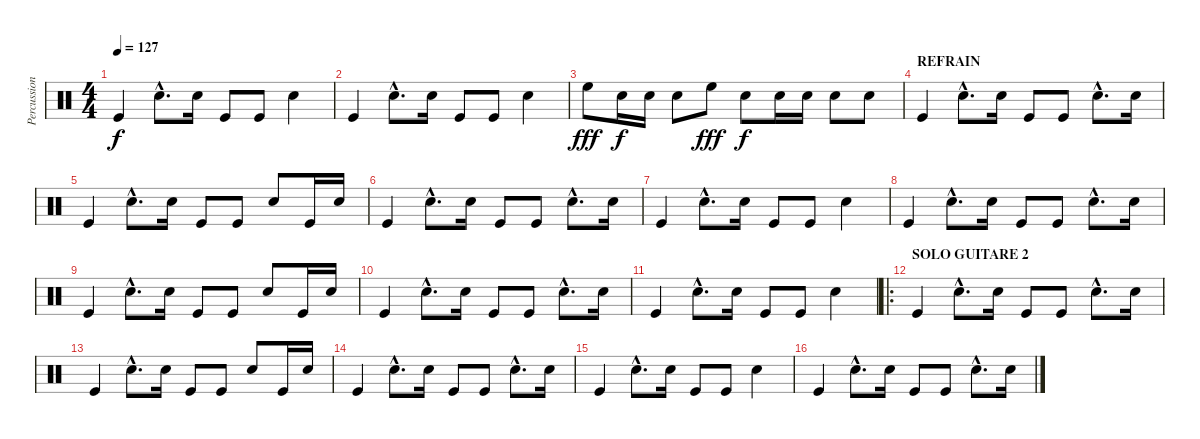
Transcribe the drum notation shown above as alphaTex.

\track ("Percussions" "Percussion") {instrument percussion}
\staff {score}
\articulation defaults
\ts (4 4)
\tempo 127
\clef neutral
\ks c "Kick (hit)".4{dy f} "Electric Snare (hit)"{hac}.8{d} "Electric Snare (hit)".16 "Kick (hit)".8 "Kick (hit)".8 "Electric Snare (hit)".4
|
"Kick (hit)".4 "Electric Snare (hit)"{hac}.8{d} "Electric Snare (hit)".16 "Kick (hit)".8 "Kick (hit)".8 "Electric Snare (hit)".4 |
"High Floor Tom (hit)".8{dy fff} "Electric Snare (hit)".16{dy f} "Electric Snare (hit)".16 "Electric Snare (hit)".8 "High Floor Tom (hit)".8{dy fff} "Electric Snare (hit)".8{dy f} "Electric Snare (hit)".16 "Electric Snare (hit)".16 "Electric Snare (hit)".8 "Electric Snare (hit)".8 |
\section ("" "REFRAIN")
"Kick (hit)".4 "Electric Snare (hit)"{hac}.8{d} "Electric Snare (hit)".16 "Kick (hit)".8 "Kick (hit)".8 "Electric Snare (hit)"{hac}.8{d} "Electric Snare (hit)".16 |
"Kick (hit)".4 "Electric Snare (hit)"{hac}.8{d} "Electric Snare (hit)".16 "Kick (hit)".8 "Kick (hit)".8 "Electric Snare (hit)".8 "Kick (hit)".16 "Electric Snare (hit)".16 |
"Kick (hit)".4 "Electric Snare (hit)"{hac}.8{d} "Electric Snare (hit)".16 "Kick (hit)".8 "Kick (hit)".8 "Electric Snare (hit)"{hac}.8{d} "Electric Snare (hit)".16 |
"Kick (hit)".4 "Electric Snare (hit)"{hac}.8{d} "Electric Snare (hit)".16 "Kick (hit)".8 "Kick (hit)".8 "Electric Snare (hit)".4 |
"Kick (hit)".4 "Electric Snare (hit)"{hac}.8{d} "Electric Snare (hit)".16 "Kick (hit)".8 "Kick (hit)".8 "Electric Snare (hit)"{hac}.8{d} "Electric Snare (hit)".16 |
"Kick (hit)".4 "Electric Snare (hit)"{hac}.8{d} "Electric Snare (hit)".16 "Kick (hit)".8 "Kick (hit)".8 "Electric Snare (hit)".8 "Kick (hit)".16 "Electric Snare (hit)".16 |
"Kick (hit)".4 "Electric Snare (hit)"{hac}.8{d} "Electric Snare (hit)".16 "Kick (hit)".8 "Kick (hit)".8 "Electric Snare (hit)"{hac}.8{d} "Electric Snare (hit)".16 |
"Kick (hit)".4 "Electric Snare (hit)"{hac}.8{d} "Electric Snare (hit)".16 "Kick (hit)".8 "Kick (hit)".8 "Electric Snare (hit)".4 |
\ro
\section ("" "SOLO GUITARE 2")
"Kick (hit)".4 "Electric Snare (hit)"{hac}.8{d} "Electric Snare (hit)".16 "Kick (hit)".8 "Kick (hit)".8 "Electric Snare (hit)"{hac}.8{d} "Electric Snare (hit)".16 |
"Kick (hit)".4 "Electric Snare (hit)"{hac}.8{d} "Electric Snare (hit)".16 "Kick (hit)".8 "Kick (hit)".8 "Electric Snare (hit)".8 "Kick (hit)".16 "Electric Snare (hit)".16 |
"Kick (hit)".4 "Electric Snare (hit)"{hac}.8{d} "Electric Snare (hit)".16 "Kick (hit)".8 "Kick (hit)".8 "Electric Snare (hit)"{hac}.8{d} "Electric Snare (hit)".16 |
"Kick (hit)".4 "Electric Snare (hit)"{hac}.8{d} "Electric Snare (hit)".16 "Kick (hit)".8 "Kick (hit)".8 "Electric Snare (hit)".4 |
"Kick (hit)".4 "Electric Snare (hit)"{hac}.8{d} "Electric Snare (hit)".16 "Kick (hit)".8 "Kick (hit)".8 "Electric Snare (hit)"{hac}.8{d} "Electric Snare (hit)".16
